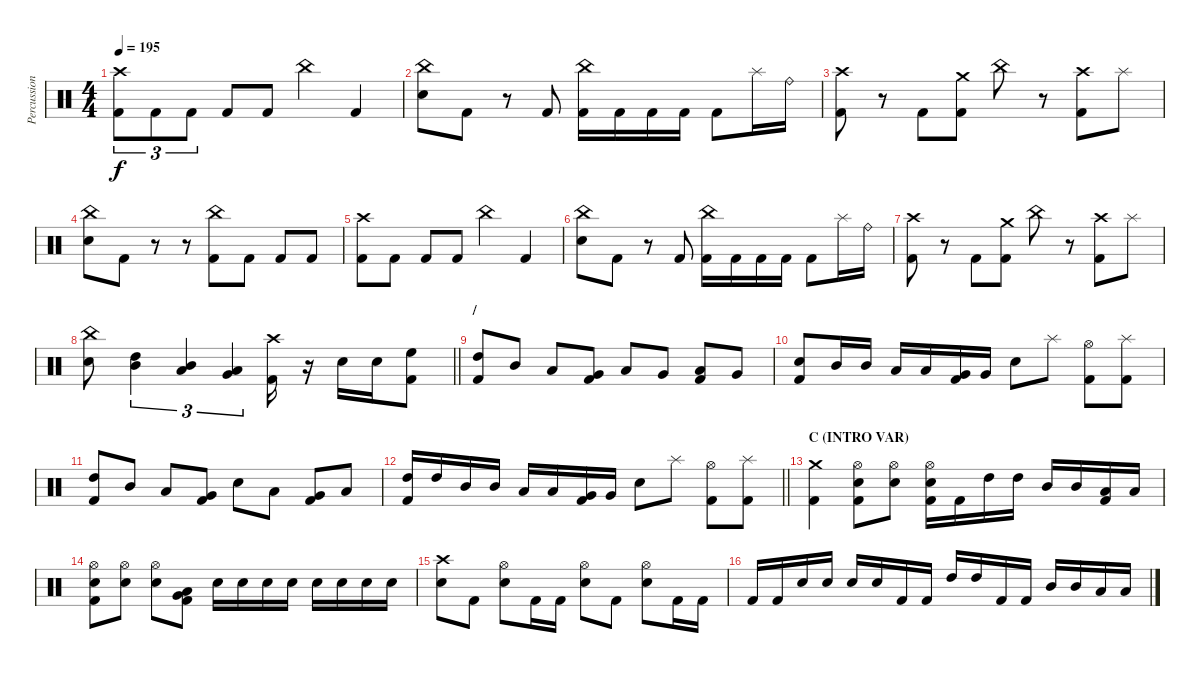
\track ("Percussion" "Percussion") {instrument percussion}
\staff {score}
\articulation defaults
\ts (4 4)
\tempo 195
\clef neutral
\ks c
("Crash high (hit)" "Kick (hit) 2").8{tu (3 2) dy f} "Kick (hit) 2".8{tu (3 2)} "Kick (hit) 2".8{tu (3 2)} "Kick (hit) 2".8 "Kick (hit) 2".8 "China (hit)".4 "Kick (hit) 2".4 |
("China (hit)" "Electric Snare (hit)").8 "Kick (hit) 2".8 r.8 "Kick (hit) 2".8 ("China (hit)" "Kick (hit) 2").16 "Kick (hit) 2".16 "Kick (hit) 2".16 "Kick (hit) 2".16 "Kick (hit) 2".8 "Splash (hit)".16 "Ride (bell)".16 |
("Crash high (hit)" "Kick (hit) 2").8 r.8 "Kick (hit) 2".8 ("Crash medium (hit)" "Kick (hit) 2").8 "China (hit)".8 r.8 ("Crash high (hit)" "Kick (hit) 2").8 "Splash (hit)".8 |
("China (hit)" "Electric Snare (hit)").8 "Kick (hit) 2".8 r.8 r.8 ("China (hit)" "Kick (hit) 2").8 "Kick (hit) 2".8 "Kick (hit) 2".8 "Kick (hit) 2".8 |
("Crash high (hit)" "Kick (hit) 2").8 "Kick (hit) 2".8 "Kick (hit) 2".8 "Kick (hit) 2".8 "China (hit)".4 "Kick (hit) 2".4 |
("China (hit)" "Electric Snare (hit)").8 "Kick (hit) 2".8 r.8 "Kick (hit) 2".8 ("China (hit)" "Kick (hit) 2").16 "Kick (hit) 2".16 "Kick (hit) 2".16 "Kick (hit) 2".16 "Kick (hit) 2".8 "Splash (hit)".16 "Ride (bell)".16 |
("Crash high (hit)" "Kick (hit) 2").8 r.8 "Kick (hit) 2".8 ("Crash medium (hit)" "Kick (hit) 2").8 "China (hit)".8 r.8 ("Crash high (hit)" "Kick (hit) 2").8 "Splash (hit)".8 |
\barLineRight lightlight
("China (hit)" "Electric Snare (hit)").8 ("Mid Tom (hit)" "High Tom (hit)").4{tu (3 2)} ("Low Tom (hit)" "Mid Tom (hit)").4{tu (3 2)} ("Low Tom (hit)" "Very Low Tom (hit)").4{tu (3 2)} ("Crash high (hit)" "Kick (hit) 2").16 r.16 "Electric Snare (hit)".16 "Electric Snare (hit)".16 ("High Floor Tom (hit)" "Kick (hit) 2").8 |
\section ("" "/")
("High Tom (hit)" "Kick (hit) 2").8 "Mid Tom (hit)".8 "Low Tom (hit)".8 ("Very Low Tom (hit)" "Kick (hit) 2").8 "Low Tom (hit)".8 "Very Low Tom (hit)".8 ("Low Floor Tom (hit)" "Kick (hit) 2").8 "Very Low Tom (hit)".8 |
("Electric Snare (hit)" "Kick (hit) 2").8 "Mid Tom (hit)".16 "Mid Tom (hit)".16 "Low Tom (hit)".16 "Low Tom (hit)".16 ("Very Low Tom (hit)" "Kick (hit) 2").16 "Very Low Tom (hit)".16 "Electric Snare (hit)".8 "Splash (hit)".8 ("Hi-Hat (open)" "Kick (hit) 2").8 ("Splash (hit)" "Kick (hit) 2").8 |
("High Tom (hit)" "Kick (hit) 2").8 "Mid Tom (hit)".8 "Low Tom (hit)".8 ("Very Low Tom (hit)" "Kick (hit) 2").8 "Electric Snare (hit)".8 "Low Tom (hit)".8 ("Very Low Tom (hit)" "Kick (hit) 2").8 "Low Floor Tom (hit)".8 |
\barLineRight lightlight
("High Tom (hit)" "Kick (hit) 2").16 "High Tom (hit)".16 "Mid Tom (hit)".16 "Mid Tom (hit)".16 "Low Tom (hit)".16 "Low Tom (hit)".16 ("Very Low Tom (hit)" "Kick (hit) 2").16 "Very Low Tom (hit)".16 "Electric Snare (hit)".8 "Splash (hit)".8 ("Hi-Hat (open)" "Kick (hit) 2").8 ("Splash (hit)" "Kick (hit) 2").8 |
\section ("" "C (INTRO VAR)")
("Crash medium (hit)" "Kick (hit) 2").4 ("Hi-Hat (open)" "Electric Snare (hit)" "Kick (hit) 2").8 ("Hi-Hat (open)" "Electric Snare (hit)").8 ("Hi-Hat (open)" "Electric Snare (hit)" "Kick (hit) 2").16 "Kick (hit) 2".16 "High Tom (hit)".16 "High Tom (hit)".16 "Mid Tom (hit)".16 "Mid Tom (hit)".16 ("Low Tom (hit)" "Kick (hit) 2").16 "Low Tom (hit)".16 |
("Hi-Hat (open)" "Electric Snare (hit)" "Kick (hit) 2").8 ("Hi-Hat (open)" "Electric Snare (hit)").8 ("Hi-Hat (open)" "Electric Snare (hit)").8 ("Very Low Tom (hit)" "Low Floor Tom (hit)" "Kick (hit) 2").8 "Electric Snare (hit)".16 "Electric Snare (hit)".16 "Electric Snare (hit)".16 "Electric Snare (hit)".16 "Electric Snare (hit)".16 "Electric Snare (hit)".16 "Electric Snare (hit)".16 "Electric Snare (hit)".16 |
("Crash high (hit)" "Electric Snare (hit)").8 "Kick (hit) 2".8 ("Hi-Hat (open)" "Electric Snare (hit)").8 "Kick (hit) 2".16 "Kick (hit) 2".16 ("Hi-Hat (open)" "Electric Snare (hit)").8 "Kick (hit) 2".8 ("Hi-Hat (open)" "Electric Snare (hit)").8 "Kick (hit) 2".16 "Kick (hit) 2".16 |
"Kick (hit) 2".16 "Kick (hit) 2".16 "Electric Snare (hit)".16 "Electric Snare (hit)".16 "Electric Snare (hit)".16 "Electric Snare (hit)".16 "Kick (hit) 2".16 "Kick (hit) 2".16 "High Tom (hit)".16 "High Tom (hit)".16 "Kick (hit) 2".16 "Kick (hit) 2".16 "Mid Tom (hit)".16 "Mid Tom (hit)".16 "Low Tom (hit)".16 "Low Tom (hit)".16
